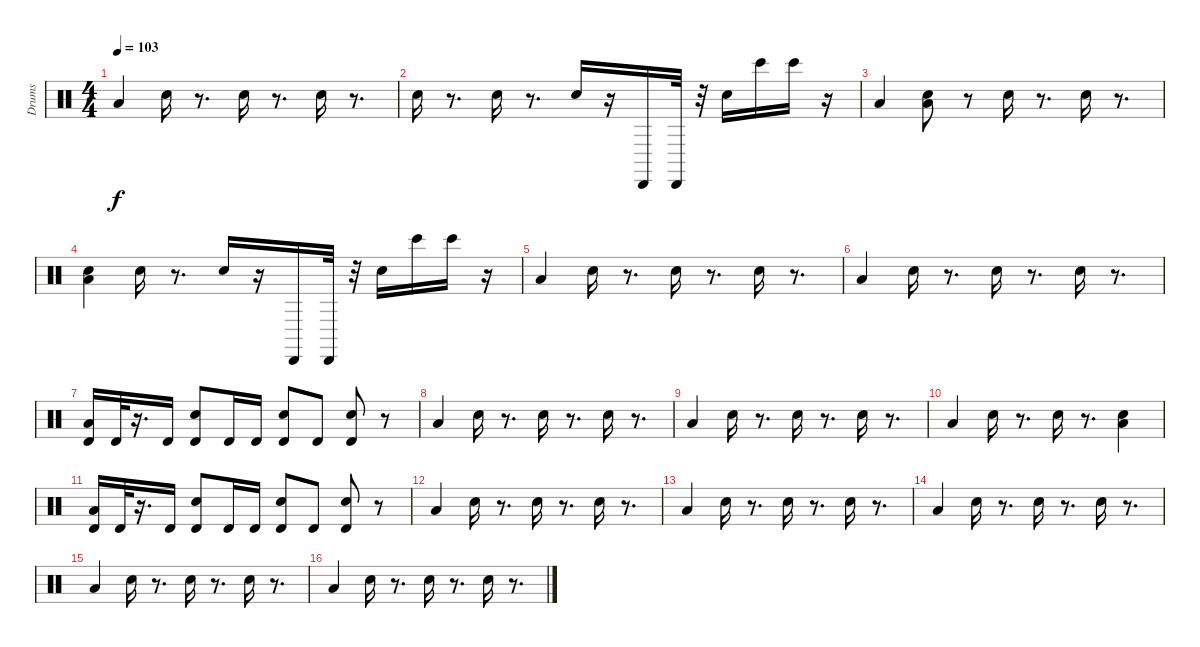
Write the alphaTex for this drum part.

\track ("Drums" "Drums") {instrument percussion}
\staff {score}
\articulation defaults
\ts (4 4)
\tempo 103
\clef neutral
\ks c "Low Tom (hit)".4{dy f} "Electric Snare (hit)".16
r.8{d} "Electric Snare (hit)".16 r.8{d} "Electric Snare (hit)".16 r.8{d} |
"Electric Snare (hit)".16 r.8{d} "Electric Snare (hit)".16 r.8{d} "Electric Snare (hit)".16 r.16 "Cabasa (hit)".16 "Cabasa (hit)".32 r.32 "Electric Snare (hit)".16 "Bongo High (hit)".16 "Bongo High (hit)".16 r.16 |
"Low Tom (hit)".4 ("Low Tom (hit)" "Electric Snare (hit)").8 r.8 "Electric Snare (hit)".16 r.8{d} "Electric Snare (hit)".16 r.8{d} |
("Low Tom (hit)" "Electric Snare (hit)").4 "Electric Snare (hit)".16 r.8{d} "Electric Snare (hit)".16 r.16 "Cabasa (hit)".16 "Cabasa (hit)".32 r.32 "Electric Snare (hit)".16 "Bongo High (hit)".16 "Bongo High (hit)".16 r.16 |
"Low Tom (hit)".4 "Electric Snare (hit)".16 r.8{d} "Electric Snare (hit)".16 r.8{d} "Electric Snare (hit)".16 r.8{d} |
"Low Tom (hit)".4 "Electric Snare (hit)".16 r.8{d} "Electric Snare (hit)".16 r.8{d} "Electric Snare (hit)".16 r.8{d} |
("Timbale high (hit)" "Low Tom (hit)").16 "Timbale high (hit)".32 r.16{d} "Timbale high (hit)".16 ("Timbale high (hit)" "Electric Snare (hit)").8 "Timbale high (hit)".16 "Timbale high (hit)".16 ("Timbale high (hit)" "Electric Snare (hit)").8 "Timbale high (hit)".8 ("Timbale high (hit)" "Electric Snare (hit)").8 r.8 |
"Low Tom (hit)".4 "Electric Snare (hit)".16 r.8{d} "Electric Snare (hit)".16 r.8{d} "Electric Snare (hit)".16 r.8{d} |
"Low Tom (hit)".4 "Electric Snare (hit)".16 r.8{d} "Electric Snare (hit)".16 r.8{d} "Electric Snare (hit)".16 r.8{d} |
"Low Tom (hit)".4 "Electric Snare (hit)".16 r.8{d} "Electric Snare (hit)".16 r.8{d} ("Low Tom (hit)" "Electric Snare (hit)").4 |
("Timbale high (hit)" "Low Tom (hit)").16 "Timbale high (hit)".32 r.16{d} "Timbale high (hit)".16 ("Timbale high (hit)" "Electric Snare (hit)").8 "Timbale high (hit)".16 "Timbale high (hit)".16 ("Timbale high (hit)" "Electric Snare (hit)").8 "Timbale high (hit)".8 ("Timbale high (hit)" "Electric Snare (hit)").8 r.8 |
"Low Tom (hit)".4 "Electric Snare (hit)".16 r.8{d} "Electric Snare (hit)".16 r.8{d} "Electric Snare (hit)".16 r.8{d} |
"Low Tom (hit)".4 "Electric Snare (hit)".16 r.8{d} "Electric Snare (hit)".16 r.8{d} "Electric Snare (hit)".16 r.8{d} |
"Low Tom (hit)".4 "Electric Snare (hit)".16 r.8{d} "Electric Snare (hit)".16 r.8{d} "Electric Snare (hit)".16 r.8{d} |
"Low Tom (hit)".4 "Electric Snare (hit)".16 r.8{d} "Electric Snare (hit)".16 r.8{d} "Electric Snare (hit)".16 r.8{d} |
"Low Tom (hit)".4 "Electric Snare (hit)".16 r.8{d} "Electric Snare (hit)".16 r.8{d} "Electric Snare (hit)".16 r.8{d}
